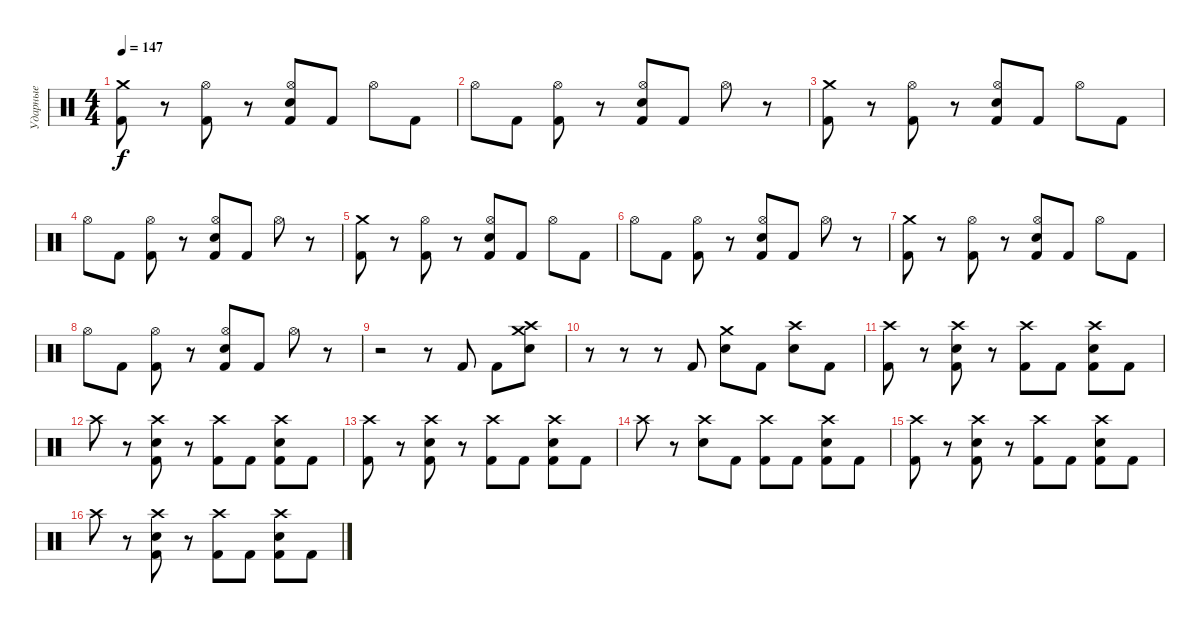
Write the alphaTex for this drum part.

\track ("Ударные" "Ударные") {instrument percussion}
\staff {score}
\articulation defaults
\ts (4 4)
\tempo 147
\clef neutral
\ks c
("Crash medium (hit)" "Kick (hit) 2").8{dy f} r.8 ("Hi-Hat (open)" "Kick (hit) 2").8 r.8 ("Hi-Hat (open)" "Electric Snare (hit)" "Kick (hit) 2").8 "Kick (hit) 2".8 "Hi-Hat (open)".8 "Kick (hit) 2".8 |
"Hi-Hat (open)".8 "Kick (hit) 2".8 ("Hi-Hat (open)" "Kick (hit) 2").8 r.8 ("Hi-Hat (open)" "Electric Snare (hit)" "Kick (hit) 2").8 "Kick (hit) 2".8 "Hi-Hat (open)".8 r.8 |
("Crash medium (hit)" "Kick (hit) 2").8 r.8 ("Hi-Hat (open)" "Kick (hit) 2").8 r.8 ("Hi-Hat (open)" "Electric Snare (hit)" "Kick (hit) 2").8 "Kick (hit) 2".8 "Hi-Hat (open)".8 "Kick (hit) 2".8 |
"Hi-Hat (open)".8 "Kick (hit) 2".8 ("Hi-Hat (open)" "Kick (hit) 2").8 r.8 ("Hi-Hat (open)" "Electric Snare (hit)" "Kick (hit) 2").8 "Kick (hit) 2".8 "Hi-Hat (open)".8 r.8 |
("Crash medium (hit)" "Kick (hit) 2").8 r.8 ("Hi-Hat (open)" "Kick (hit) 2").8 r.8 ("Hi-Hat (open)" "Electric Snare (hit)" "Kick (hit) 2").8 "Kick (hit) 2".8 "Hi-Hat (open)".8 "Kick (hit) 2".8 |
"Hi-Hat (open)".8 "Kick (hit) 2".8 ("Hi-Hat (open)" "Kick (hit) 2").8 r.8 ("Hi-Hat (open)" "Electric Snare (hit)" "Kick (hit) 2").8 "Kick (hit) 2".8 "Hi-Hat (open)".8 r.8 |
("Crash medium (hit)" "Kick (hit) 2").8 r.8 ("Hi-Hat (open)" "Kick (hit) 2").8 r.8 ("Hi-Hat (open)" "Electric Snare (hit)" "Kick (hit) 2").8 "Kick (hit) 2".8 "Hi-Hat (open)".8 "Kick (hit) 2".8 |
"Hi-Hat (open)".8 "Kick (hit) 2".8 ("Hi-Hat (open)" "Kick (hit) 2").8 r.8 ("Hi-Hat (open)" "Electric Snare (hit)" "Kick (hit) 2").8 "Kick (hit) 2".8 "Hi-Hat (open)".8 r.8 |
r.2 r.8 "Kick (hit) 2".8 "Kick (hit) 2".8 ("Crash high (hit)" "Crash medium (hit)" "Electric Snare (hit)").8 |
r.8 r.8 r.8 "Kick (hit) 2".8 ("Crash medium (hit)" "Electric Snare (hit)").8 "Kick (hit) 2".8 ("Crash high (hit)" "Electric Snare (hit)").8 "Kick (hit) 2".8 |
("Crash high (hit)" "Kick (hit) 2").8 r.8 ("Crash high (hit)" "Electric Snare (hit)" "Kick (hit) 2").8 r.8 ("Crash high (hit)" "Kick (hit) 2").8 "Kick (hit) 2".8 ("Crash high (hit)" "Electric Snare (hit)" "Kick (hit) 2").8 "Kick (hit) 2".8 |
"Crash high (hit)".8 r.8 ("Crash high (hit)" "Electric Snare (hit)" "Kick (hit) 2").8 r.8 ("Crash high (hit)" "Kick (hit) 2").8 "Kick (hit) 2".8 ("Crash high (hit)" "Electric Snare (hit)" "Kick (hit) 2").8 "Kick (hit) 2".8 |
("Crash high (hit)" "Kick (hit) 2").8 r.8 ("Crash high (hit)" "Electric Snare (hit)" "Kick (hit) 2").8 r.8 ("Crash high (hit)" "Kick (hit) 2").8 "Kick (hit) 2".8 ("Crash high (hit)" "Electric Snare (hit)" "Kick (hit) 2").8 "Kick (hit) 2".8 |
"Crash high (hit)".8 r.8 ("Crash high (hit)" "Electric Snare (hit)").8 "Kick (hit) 2".8 ("Crash high (hit)" "Kick (hit) 2").8 "Kick (hit) 2".8 ("Crash high (hit)" "Electric Snare (hit)" "Kick (hit) 2").8 "Kick (hit) 2".8 |
("Crash high (hit)" "Kick (hit) 2").8 r.8 ("Crash high (hit)" "Electric Snare (hit)" "Kick (hit) 2").8 r.8 ("Crash high (hit)" "Kick (hit) 2").8 "Kick (hit) 2".8 ("Crash high (hit)" "Electric Snare (hit)" "Kick (hit) 2").8 "Kick (hit) 2".8 |
"Crash high (hit)".8 r.8 ("Crash high (hit)" "Electric Snare (hit)" "Kick (hit) 2").8 r.8 ("Crash high (hit)" "Kick (hit) 2").8 "Kick (hit) 2".8 ("Crash high (hit)" "Electric Snare (hit)" "Kick (hit) 2").8 "Kick (hit) 2".8
